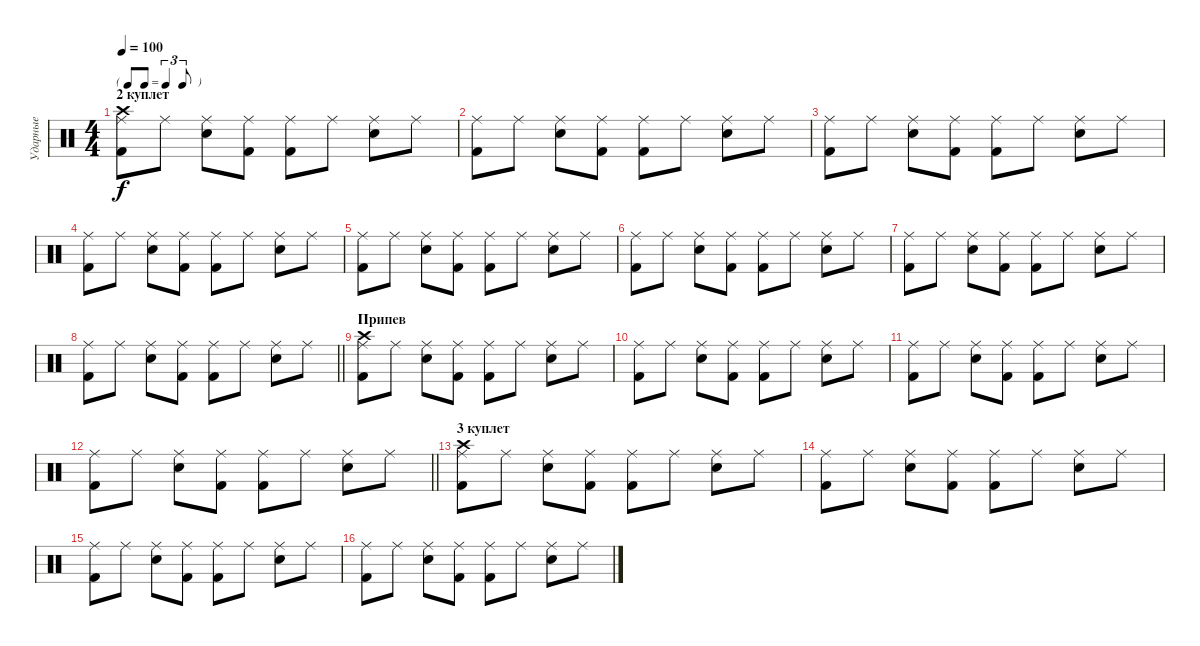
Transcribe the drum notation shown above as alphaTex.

\track ("Ударные" "Ударные") {instrument percussion}
\staff {score}
\articulation defaults
\ts (4 4)
\tf triplet8th
\section ("" "2 куплет")
\tempo 100
\clef neutral
\ks c
("Ride (middle)" "Kick (hit) 2" "Crash high (hit)").8{dy f} "Ride (middle)".8 ("Ride (middle)" "Electric Snare (hit)").8 ("Ride (middle)" "Kick (hit) 2").8 ("Ride (middle)" "Kick (hit) 2").8 "Ride (middle)".8 ("Ride (middle)" "Electric Snare (hit)").8 "Ride (middle)".8 |
("Ride (middle)" "Kick (hit) 2").8 "Ride (middle)".8 ("Ride (middle)" "Electric Snare (hit)").8 ("Ride (middle)" "Kick (hit) 2").8 ("Ride (middle)" "Kick (hit) 2").8 "Ride (middle)".8 ("Ride (middle)" "Electric Snare (hit)").8 "Ride (middle)".8 |
("Ride (middle)" "Kick (hit) 2").8 "Ride (middle)".8 ("Ride (middle)" "Electric Snare (hit)").8 ("Ride (middle)" "Kick (hit) 2").8 ("Ride (middle)" "Kick (hit) 2").8 "Ride (middle)".8 ("Ride (middle)" "Electric Snare (hit)").8 "Ride (middle)".8 |
("Ride (middle)" "Kick (hit) 2").8 "Ride (middle)".8 ("Ride (middle)" "Electric Snare (hit)").8 ("Ride (middle)" "Kick (hit) 2").8 ("Ride (middle)" "Kick (hit) 2").8 "Ride (middle)".8 ("Ride (middle)" "Electric Snare (hit)").8 "Ride (middle)".8 |
("Ride (middle)" "Kick (hit) 2").8 "Ride (middle)".8 ("Ride (middle)" "Electric Snare (hit)").8 ("Ride (middle)" "Kick (hit) 2").8 ("Ride (middle)" "Kick (hit) 2").8 "Ride (middle)".8 ("Ride (middle)" "Electric Snare (hit)").8 "Ride (middle)".8 |
("Ride (middle)" "Kick (hit) 2").8 "Ride (middle)".8 ("Ride (middle)" "Electric Snare (hit)").8 ("Ride (middle)" "Kick (hit) 2").8 ("Ride (middle)" "Kick (hit) 2").8 "Ride (middle)".8 ("Ride (middle)" "Electric Snare (hit)").8 "Ride (middle)".8 |
("Ride (middle)" "Kick (hit) 2").8 "Ride (middle)".8 ("Ride (middle)" "Electric Snare (hit)").8 ("Ride (middle)" "Kick (hit) 2").8 ("Ride (middle)" "Kick (hit) 2").8 "Ride (middle)".8 ("Ride (middle)" "Electric Snare (hit)").8 "Ride (middle)".8 |
\barLineRight lightlight
("Ride (middle)" "Kick (hit) 2").8 "Ride (middle)".8 ("Ride (middle)" "Electric Snare (hit)").8 ("Ride (middle)" "Kick (hit) 2").8 ("Ride (middle)" "Kick (hit) 2").8 "Ride (middle)".8 ("Ride (middle)" "Electric Snare (hit)").8 "Ride (middle)".8 |
\section ("" "Припев")
("Ride (middle)" "Kick (hit) 2" "Crash high (hit)").8 "Ride (middle)".8 ("Ride (middle)" "Electric Snare (hit)").8 ("Ride (middle)" "Kick (hit) 2").8 ("Ride (middle)" "Kick (hit) 2").8 "Ride (middle)".8 ("Ride (middle)" "Electric Snare (hit)").8 "Ride (middle)".8 |
("Ride (middle)" "Kick (hit) 2").8 "Ride (middle)".8 ("Ride (middle)" "Electric Snare (hit)").8 ("Ride (middle)" "Kick (hit) 2").8 ("Ride (middle)" "Kick (hit) 2").8 "Ride (middle)".8 ("Ride (middle)" "Electric Snare (hit)").8 "Ride (middle)".8 |
("Ride (middle)" "Kick (hit) 2").8 "Ride (middle)".8 ("Ride (middle)" "Electric Snare (hit)").8 ("Ride (middle)" "Kick (hit) 2").8 ("Ride (middle)" "Kick (hit) 2").8 "Ride (middle)".8 ("Ride (middle)" "Electric Snare (hit)").8 "Ride (middle)".8 |
\barLineRight lightlight
("Ride (middle)" "Kick (hit) 2").8 "Ride (middle)".8 ("Ride (middle)" "Electric Snare (hit)").8 ("Ride (middle)" "Kick (hit) 2").8 ("Ride (middle)" "Kick (hit) 2").8 "Ride (middle)".8 ("Ride (middle)" "Electric Snare (hit)").8 "Ride (middle)".8 |
\section ("" "3 куплет")
("Ride (middle)" "Kick (hit) 2" "Crash high (hit)").8 "Ride (middle)".8 ("Ride (middle)" "Electric Snare (hit)").8 ("Ride (middle)" "Kick (hit) 2").8 ("Ride (middle)" "Kick (hit) 2").8 "Ride (middle)".8 ("Ride (middle)" "Electric Snare (hit)").8 "Ride (middle)".8 |
("Ride (middle)" "Kick (hit) 2").8 "Ride (middle)".8 ("Ride (middle)" "Electric Snare (hit)").8 ("Ride (middle)" "Kick (hit) 2").8 ("Ride (middle)" "Kick (hit) 2").8 "Ride (middle)".8 ("Ride (middle)" "Electric Snare (hit)").8 "Ride (middle)".8 |
("Ride (middle)" "Kick (hit) 2").8 "Ride (middle)".8 ("Ride (middle)" "Electric Snare (hit)").8 ("Ride (middle)" "Kick (hit) 2").8 ("Ride (middle)" "Kick (hit) 2").8 "Ride (middle)".8 ("Ride (middle)" "Electric Snare (hit)").8 "Ride (middle)".8 |
("Ride (middle)" "Kick (hit) 2").8 "Ride (middle)".8 ("Ride (middle)" "Electric Snare (hit)").8 ("Ride (middle)" "Kick (hit) 2").8 ("Ride (middle)" "Kick (hit) 2").8 "Ride (middle)".8 ("Ride (middle)" "Electric Snare (hit)").8 "Ride (middle)".8
